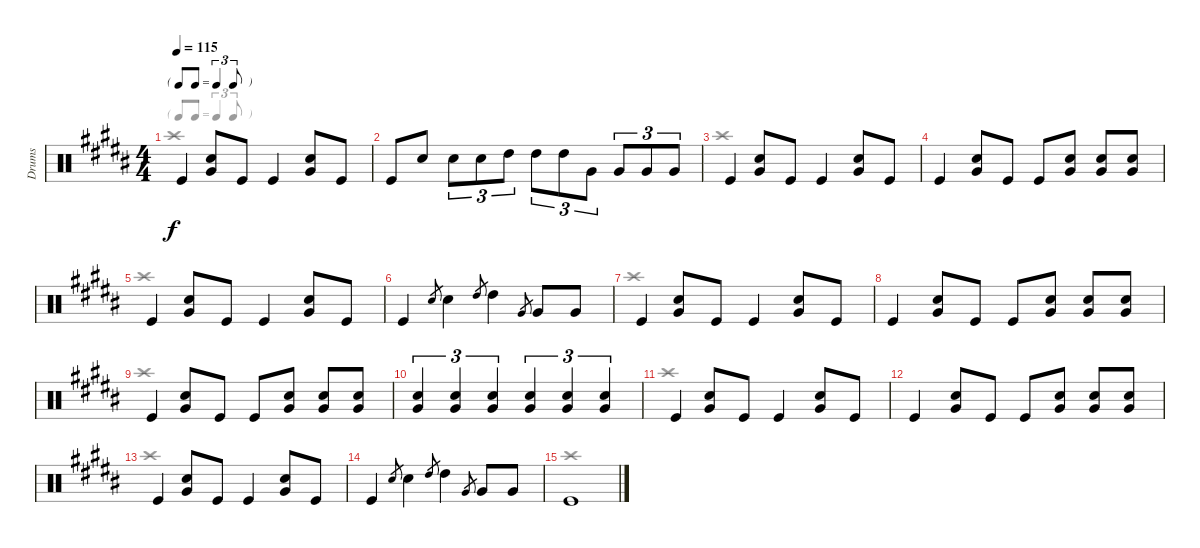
\track ("Drums" "Drums") {instrument percussion}
\staff {score}
\articulation defaults
\voice
\ts (4 4)
\tf triplet8th
\tempo 115
\clef neutral
\ks b "Kick (hit)".4{dy f}
("Snare (hit) 2" "Very Low Tom (hit)").8 "Kick (hit)".8 "Kick (hit)".4 ("Snare (hit) 2" "Very Low Tom (hit)").8 "Kick (hit)".8 |
"Kick (hit)".8 "Snare (hit) 2".8 "Snare (hit) 2".8{tu (3 2)} "Snare (hit) 2".8{tu (3 2)} "High Tom (hit)".8{tu (3 2)} "High Tom (hit)".8{tu (3 2)} "High Tom (hit)".8{tu (3 2)} "Very Low Tom (hit)".8{tu (3 2)} "Very Low Tom (hit)".8{tu (3 2)} "Very Low Tom (hit)".8{tu (3 2)} "Very Low Tom (hit)".8{tu (3 2)} |
"Kick (hit)".4 ("Snare (hit) 2" "Very Low Tom (hit)").8 "Kick (hit)".8 "Kick (hit)".4 ("Snare (hit) 2" "Very Low Tom (hit)").8 "Kick (hit)".8 |
"Kick (hit)".4 ("Snare (hit) 2" "Very Low Tom (hit)").8 "Kick (hit)".8 "Kick (hit)".8 ("Snare (hit) 2" "Very Low Tom (hit)").8 ("Snare (hit) 2" "Very Low Tom (hit)").8 ("Snare (hit) 2" "Very Low Tom (hit)").8 |
"Kick (hit)".4 ("Snare (hit) 2" "Very Low Tom (hit)").8 "Kick (hit)".8 "Kick (hit)".4 ("Snare (hit) 2" "Very Low Tom (hit)").8 "Kick (hit)".8 |
"Kick (hit)".4 "Snare (hit) 2".8{gr} "Snare (hit) 2".4 "High Tom (hit)".8{gr} "High Tom (hit)".4 "Very Low Tom (hit)".8{gr} "Very Low Tom (hit)".8 "Very Low Tom (hit)".8 |
"Kick (hit)".4 ("Snare (hit) 2" "Very Low Tom (hit)").8 "Kick (hit)".8 "Kick (hit)".4 ("Snare (hit) 2" "Very Low Tom (hit)").8 "Kick (hit)".8 |
"Kick (hit)".4 ("Snare (hit) 2" "Very Low Tom (hit)").8 "Kick (hit)".8 "Kick (hit)".8 ("Snare (hit) 2" "Very Low Tom (hit)").8 ("Snare (hit) 2" "Very Low Tom (hit)").8 ("Snare (hit) 2" "Very Low Tom (hit)").8 |
"Kick (hit)".4 ("Snare (hit) 2" "Very Low Tom (hit)").8 "Kick (hit)".8 "Kick (hit)".8 ("Snare (hit) 2" "Very Low Tom (hit)").8 ("Snare (hit) 2" "Very Low Tom (hit)").8 ("Snare (hit) 2" "Very Low Tom (hit)").8 |
("Snare (hit) 2" "Very Low Tom (hit)").4{tu (3 2)} ("Snare (hit) 2" "Very Low Tom (hit)").4{tu (3 2)} ("Snare (hit) 2" "Very Low Tom (hit)").4{tu (3 2)} ("Snare (hit) 2" "Very Low Tom (hit)").4{tu (3 2)} ("Snare (hit) 2" "Very Low Tom (hit)").4{tu (3 2)} ("Snare (hit) 2" "Very Low Tom (hit)").4{tu (3 2)} |
"Kick (hit)".4 ("Snare (hit) 2" "Very Low Tom (hit)").8 "Kick (hit)".8 "Kick (hit)".4 ("Snare (hit) 2" "Very Low Tom (hit)").8 "Kick (hit)".8 |
"Kick (hit)".4 ("Snare (hit) 2" "Very Low Tom (hit)").8 "Kick (hit)".8 "Kick (hit)".8 ("Snare (hit) 2" "Very Low Tom (hit)").8 ("Snare (hit) 2" "Very Low Tom (hit)").8 ("Snare (hit) 2" "Very Low Tom (hit)").8 |
"Kick (hit)".4 ("Snare (hit) 2" "Very Low Tom (hit)").8 "Kick (hit)".8 "Kick (hit)".4 ("Snare (hit) 2" "Very Low Tom (hit)").8 "Kick (hit)".8 |
"Kick (hit)".4 "Snare (hit) 2".8{gr} "Snare (hit) 2".4 "High Tom (hit)".8{gr} "High Tom (hit)".4 "Very Low Tom (hit)".8{gr} "Very Low Tom (hit)".8 "Very Low Tom (hit)".8 |
"Kick (hit)".1
\voice
\clef neutral
\ottava regular
\simile none
\ks b "Crash high (hit)".1{dy f}
|
|
"Crash high (hit)".1 |
|
"Crash high (hit)".1 |
|
"Crash high (hit)".1 |
|
"Crash high (hit)".1 |
|
"Crash high (hit)".1 |
|
"Crash high (hit)".1 |
|
"Crash high (hit)".1
